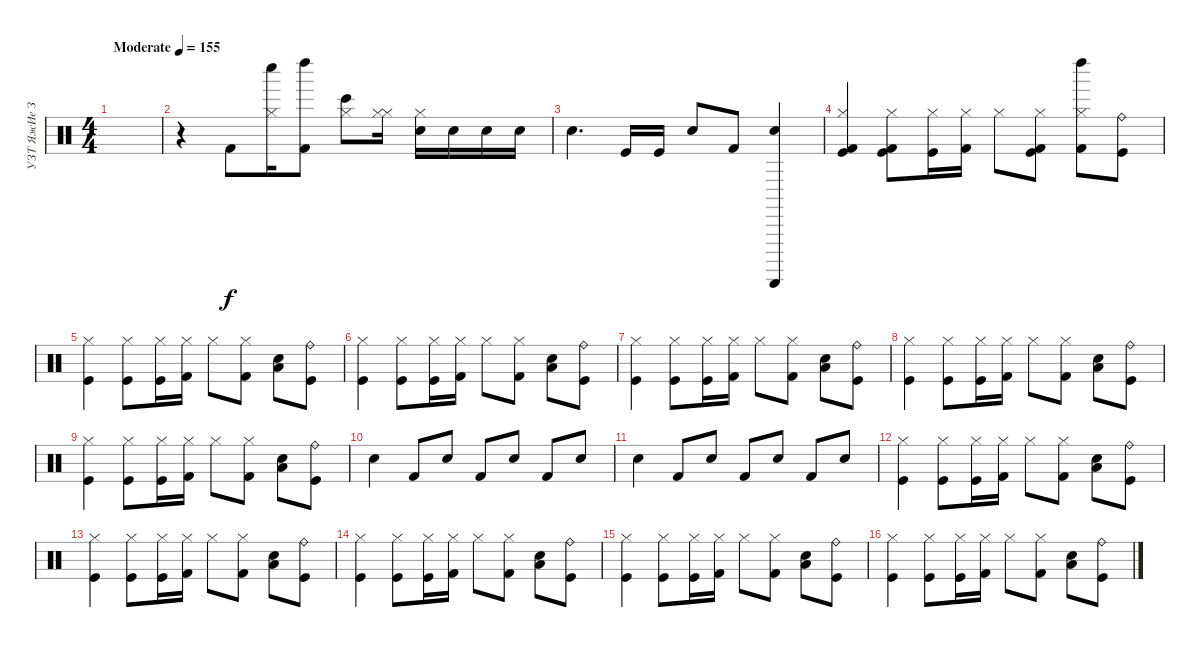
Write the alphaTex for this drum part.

\track ("УЗТ ЯжИе Зн" "УЗТ ЯжИе З") {instrument percussion}
\staff {score}
\articulation defaults
\ts (4 4)
\tempo (155 "Moderate")
\clef neutral
\ks c
|
r.4 "Kick (hit) 2".8 ("Hi-Hat (closed)" "Whistle low (hit)").16 ("Kick (hit) 2" "Left Maraca (hit)").8 ("Hi-Hat (closed)" "Bongo High (hit)").8 ("Hi-Hat (closed)" "Hi-Hat (closed)").16 ("Hi-Hat (closed)" "Snare (hit)").16 "Snare (hit) 2".16 "Snare (hit) 2".16 "Snare (hit) 2".16 |
"Snare (hit) 2".4{d} "Kick (hit)".16 "Kick (hit)".16 "Snare (hit) 2".8 "Kick (hit) 2".8 ("Snare (hit) 2" "Guiro (scrap-return)").4 |
("Kick (hit)" "Kick (hit) 2" "Hi-Hat (closed)").4 ("Kick (hit)" "Kick (hit) 2" "Hi-Hat (closed)").8 ("Kick (hit)" "Hi-Hat (closed)").16 ("Kick (hit) 2" "Hi-Hat (closed)").16 "Hi-Hat (closed)".8 ("Kick (hit) 2" "Kick (hit)" "Hi-Hat (closed)").8 ("Kick (hit) 2" "Left Maraca (hit)" "Hi-Hat (closed)").8 ("Kick (hit)" "Ride (bell)").8 |
("Kick (hit)" "Hi-Hat (closed)").4 ("Kick (hit)" "Hi-Hat (closed)").8 ("Kick (hit)" "Hi-Hat (closed)").16 ("Kick (hit) 2" "Hi-Hat (closed)").16 "Hi-Hat (closed)".8 ("Kick (hit) 2" "Hi-Hat (closed)").8 ("Snare (hit) 2" "Low Tom (hit)").8 ("Kick (hit)" "Ride (bell)").8 |
("Kick (hit)" "Hi-Hat (closed)").4 ("Kick (hit)" "Hi-Hat (closed)").8 ("Kick (hit)" "Hi-Hat (closed)").16 ("Kick (hit) 2" "Hi-Hat (closed)").16 "Hi-Hat (closed)".8 ("Kick (hit) 2" "Hi-Hat (closed)").8 ("Snare (hit) 2" "Low Tom (hit)").8 ("Kick (hit)" "Ride (bell)").8 |
("Kick (hit)" "Hi-Hat (closed)").4 ("Kick (hit)" "Hi-Hat (closed)").8 ("Kick (hit)" "Hi-Hat (closed)").16 ("Kick (hit) 2" "Hi-Hat (closed)").16 "Hi-Hat (closed)".8 ("Kick (hit) 2" "Hi-Hat (closed)").8 ("Snare (hit) 2" "Low Tom (hit)").8 ("Kick (hit)" "Ride (bell)").8 |
("Kick (hit)" "Hi-Hat (closed)").4 ("Kick (hit)" "Hi-Hat (closed)").8 ("Kick (hit)" "Hi-Hat (closed)").16 ("Kick (hit) 2" "Hi-Hat (closed)").16 "Hi-Hat (closed)".8 ("Kick (hit) 2" "Hi-Hat (closed)").8 ("Snare (hit) 2" "Low Tom (hit)").8 ("Kick (hit)" "Ride (bell)").8 |
("Kick (hit)" "Hi-Hat (closed)").4 ("Kick (hit)" "Hi-Hat (closed)").8 ("Kick (hit)" "Hi-Hat (closed)").16 ("Kick (hit) 2" "Hi-Hat (closed)").16 "Hi-Hat (closed)".8 ("Kick (hit) 2" "Hi-Hat (closed)").8 ("Snare (hit) 2" "Low Tom (hit)").8 ("Kick (hit)" "Ride (bell)").8 |
"Snare (hit) 2".4 "Kick (hit) 2".8 "Snare (hit) 2".8 "Kick (hit) 2".8 "Snare (hit) 2".8 "Kick (hit) 2".8 "Snare (hit) 2".8 |
"Snare (hit) 2".4 "Kick (hit) 2".8 "Snare (hit) 2".8 "Kick (hit) 2".8 "Snare (hit) 2".8 "Kick (hit) 2".8 "Snare (hit) 2".8 |
("Kick (hit)" "Hi-Hat (closed)").4 ("Kick (hit)" "Hi-Hat (closed)").8 ("Kick (hit)" "Hi-Hat (closed)").16 ("Kick (hit) 2" "Hi-Hat (closed)").16 "Hi-Hat (closed)".8 ("Kick (hit) 2" "Hi-Hat (closed)").8 ("Snare (hit) 2" "Low Tom (hit)").8 ("Kick (hit)" "Ride (bell)").8 |
("Kick (hit)" "Hi-Hat (closed)").4 ("Kick (hit)" "Hi-Hat (closed)").8 ("Kick (hit)" "Hi-Hat (closed)").16 ("Kick (hit) 2" "Hi-Hat (closed)").16 "Hi-Hat (closed)".8 ("Kick (hit) 2" "Hi-Hat (closed)").8 ("Snare (hit) 2" "Low Tom (hit)").8 ("Kick (hit)" "Ride (bell)").8 |
("Kick (hit)" "Hi-Hat (closed)").4 ("Kick (hit)" "Hi-Hat (closed)").8 ("Kick (hit)" "Hi-Hat (closed)").16 ("Kick (hit) 2" "Hi-Hat (closed)").16 "Hi-Hat (closed)".8 ("Kick (hit) 2" "Hi-Hat (closed)").8 ("Snare (hit) 2" "Low Tom (hit)").8 ("Kick (hit)" "Ride (bell)").8 |
("Kick (hit)" "Hi-Hat (closed)").4 ("Kick (hit)" "Hi-Hat (closed)").8 ("Kick (hit)" "Hi-Hat (closed)").16 ("Kick (hit) 2" "Hi-Hat (closed)").16 "Hi-Hat (closed)".8 ("Kick (hit) 2" "Hi-Hat (closed)").8 ("Snare (hit) 2" "Low Tom (hit)").8 ("Kick (hit)" "Ride (bell)").8 |
("Kick (hit)" "Hi-Hat (closed)").4 ("Kick (hit)" "Hi-Hat (closed)").8 ("Kick (hit)" "Hi-Hat (closed)").16 ("Kick (hit) 2" "Hi-Hat (closed)").16 "Hi-Hat (closed)".8 ("Kick (hit) 2" "Hi-Hat (closed)").8 ("Snare (hit) 2" "Low Tom (hit)").8 ("Kick (hit)" "Ride (bell)").8
